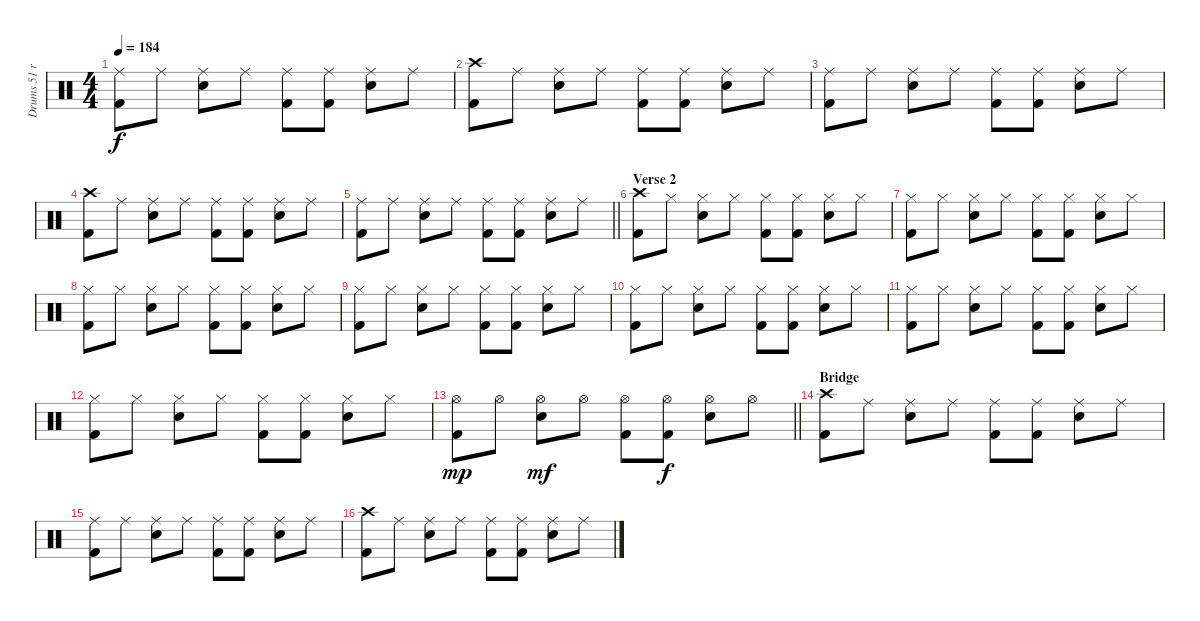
\track ("Drums 51 ride" "Drums 51 r") {mute instrument percussion}
\staff {score}
\articulation defaults
\ts (4 4)
\tempo 184
\clef neutral
\ks c
("Ride (middle)" "Kick (hit) 2").8{dy f} "Ride (middle)".8 ("Ride (middle)" "Snare (hit) 2").8 "Ride (middle)".8 ("Ride (middle)" "Kick (hit) 2").8 ("Ride (middle)" "Kick (hit) 2").8 ("Ride (middle)" "Snare (hit) 2").8 "Ride (middle)".8 |
("Crash high (hit)" "Kick (hit) 2").8 "Ride (middle)".8 ("Ride (middle)" "Snare (hit) 2").8 "Ride (middle)".8 ("Ride (middle)" "Kick (hit) 2").8 ("Ride (middle)" "Kick (hit) 2").8 ("Ride (middle)" "Snare (hit) 2").8 "Ride (middle)".8 |
("Ride (middle)" "Kick (hit) 2").8 "Ride (middle)".8 ("Ride (middle)" "Snare (hit) 2").8 "Ride (middle)".8 ("Ride (middle)" "Kick (hit) 2").8 ("Ride (middle)" "Kick (hit) 2").8 ("Ride (middle)" "Snare (hit) 2").8 "Ride (middle)".8 |
("Crash high (hit)" "Kick (hit) 2").8 "Ride (middle)".8 ("Ride (middle)" "Snare (hit) 2").8 "Ride (middle)".8 ("Ride (middle)" "Kick (hit) 2").8 ("Ride (middle)" "Kick (hit) 2").8 ("Ride (middle)" "Snare (hit) 2").8 "Ride (middle)".8 |
\barLineRight lightlight
("Ride (middle)" "Kick (hit) 2").8 "Ride (middle)".8 ("Ride (middle)" "Snare (hit) 2").8 "Ride (middle)".8 ("Ride (middle)" "Kick (hit) 2").8 ("Ride (middle)" "Kick (hit) 2").8 ("Ride (middle)" "Snare (hit) 2").8 "Ride (middle)".8 |
\section ("" "Verse 2")
("Crash high (hit)" "Kick (hit) 2").8 "Hi-Hat (closed)".8 ("Hi-Hat (closed)" "Snare (hit) 2").8 "Hi-Hat (closed)".8 ("Hi-Hat (closed)" "Kick (hit) 2").8 ("Hi-Hat (closed)" "Kick (hit) 2").8 ("Hi-Hat (closed)" "Snare (hit) 2").8 "Hi-Hat (closed)".8 |
("Hi-Hat (closed)" "Kick (hit) 2").8 "Hi-Hat (closed)".8 ("Hi-Hat (closed)" "Snare (hit) 2").8 "Hi-Hat (closed)".8 ("Hi-Hat (closed)" "Kick (hit) 2").8 ("Hi-Hat (closed)" "Kick (hit) 2").8 ("Hi-Hat (closed)" "Snare (hit) 2").8 "Hi-Hat (closed)".8 |
("Hi-Hat (closed)" "Kick (hit) 2").8 "Hi-Hat (closed)".8 ("Hi-Hat (closed)" "Snare (hit) 2").8 "Hi-Hat (closed)".8 ("Hi-Hat (closed)" "Kick (hit) 2").8 ("Hi-Hat (closed)" "Kick (hit) 2").8 ("Hi-Hat (closed)" "Snare (hit) 2").8 "Hi-Hat (closed)".8 |
("Hi-Hat (closed)" "Kick (hit) 2").8 "Hi-Hat (closed)".8 ("Hi-Hat (closed)" "Snare (hit) 2").8 "Hi-Hat (closed)".8 ("Hi-Hat (closed)" "Kick (hit) 2").8 ("Hi-Hat (closed)" "Kick (hit) 2").8 ("Hi-Hat (closed)" "Snare (hit) 2").8 "Hi-Hat (closed)".8 |
("Hi-Hat (closed)" "Kick (hit) 2").8 "Hi-Hat (closed)".8 ("Hi-Hat (closed)" "Snare (hit) 2").8 "Hi-Hat (closed)".8 ("Hi-Hat (closed)" "Kick (hit) 2").8 ("Hi-Hat (closed)" "Kick (hit) 2").8 ("Hi-Hat (closed)" "Snare (hit) 2").8 "Hi-Hat (closed)".8 |
("Hi-Hat (closed)" "Kick (hit) 2").8 "Hi-Hat (closed)".8 ("Hi-Hat (closed)" "Snare (hit) 2").8 "Hi-Hat (closed)".8 ("Hi-Hat (closed)" "Kick (hit) 2").8 ("Hi-Hat (closed)" "Kick (hit) 2").8 ("Hi-Hat (closed)" "Snare (hit) 2").8 "Hi-Hat (closed)".8 |
("Hi-Hat (closed)" "Kick (hit) 2").8 "Hi-Hat (closed)".8 ("Hi-Hat (closed)" "Snare (hit) 2").8 "Hi-Hat (closed)".8 ("Hi-Hat (closed)" "Kick (hit) 2").8 ("Hi-Hat (closed)" "Kick (hit) 2").8 ("Hi-Hat (closed)" "Snare (hit) 2").8 "Hi-Hat (closed)".8 |
\barLineRight lightlight
("Hi-Hat (open)" "Kick (hit) 2").8{dy mp} "Hi-Hat (open)".8 ("Hi-Hat (open)" "Snare (hit) 2").8{dy mf} "Hi-Hat (open)".8 ("Hi-Hat (open)" "Kick (hit) 2").8 ("Hi-Hat (open)" "Kick (hit) 2").8{dy f} ("Hi-Hat (open)" "Snare (hit) 2").8 "Hi-Hat (open)".8 |
\section ("" "Bridge")
("Crash high (hit)" "Kick (hit) 2").8 "Ride (middle)".8 ("Ride (middle)" "Snare (hit) 2").8 "Ride (middle)".8 ("Ride (middle)" "Kick (hit) 2").8 ("Ride (middle)" "Kick (hit) 2").8 ("Ride (middle)" "Snare (hit) 2").8 "Ride (middle)".8 |
("Ride (middle)" "Kick (hit) 2").8 "Ride (middle)".8 ("Ride (middle)" "Snare (hit) 2").8 "Ride (middle)".8 ("Ride (middle)" "Kick (hit) 2").8 ("Ride (middle)" "Kick (hit) 2").8 ("Ride (middle)" "Snare (hit) 2").8 "Ride (middle)".8 |
("Crash high (hit)" "Kick (hit) 2").8 "Ride (middle)".8 ("Ride (middle)" "Snare (hit) 2").8 "Ride (middle)".8 ("Ride (middle)" "Kick (hit) 2").8 ("Ride (middle)" "Kick (hit) 2").8 ("Ride (middle)" "Snare (hit) 2").8 "Ride (middle)".8
